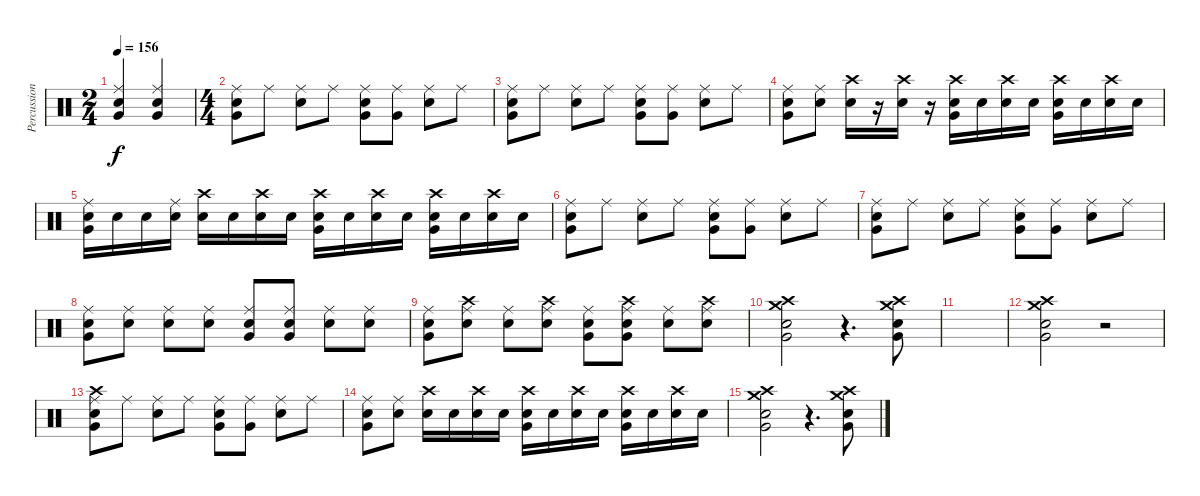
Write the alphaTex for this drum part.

\track ("Percussions" "Percussion") {instrument percussion}
\staff {score}
\articulation defaults
\ts (2 4)
\tempo 156
\clef neutral
\ks c
("Very Low Tom (hit)" "Ride (middle)" "Electric Snare (hit)").4{dy f} ("Very Low Tom (hit)" "Ride (middle)" "Electric Snare (hit)").4 |
\ts (4 4)
("Very Low Tom (hit)" "Electric Snare (hit)" "Ride (middle)").8 "Ride (middle)".8 ("Electric Snare (hit)" "Ride (middle)").8 "Ride (middle)".8 ("Very Low Tom (hit)" "Electric Snare (hit)" "Ride (middle)").8 ("Very Low Tom (hit)" "Ride (middle)").8 ("Electric Snare (hit)" "Ride (middle)").8 "Ride (middle)".8 |
("Very Low Tom (hit)" "Electric Snare (hit)" "Ride (middle)").8 "Ride (middle)".8 ("Electric Snare (hit)" "Ride (middle)").8 "Ride (middle)".8 ("Very Low Tom (hit)" "Electric Snare (hit)" "Ride (middle)").8 ("Very Low Tom (hit)" "Ride (middle)").8 ("Electric Snare (hit)" "Ride (middle)").8 "Ride (middle)".8 |
("Very Low Tom (hit)" "Electric Snare (hit)" "Ride (middle)").8 ("Electric Snare (hit)" "Ride (middle)").8 ("Electric Snare (hit)" "Crash high (hit)").16 r.16 ("Electric Snare (hit)" "Crash high (hit)").16 r.16 ("Very Low Tom (hit)" "Electric Snare (hit)" "Crash high (hit)").16 "Electric Snare (hit)".16 ("Electric Snare (hit)" "Crash high (hit)").16 "Electric Snare (hit)".16 ("Very Low Tom (hit)" "Electric Snare (hit)" "Crash high (hit)").16 "Electric Snare (hit)".16 ("Electric Snare (hit)" "Crash high (hit)").16 "Electric Snare (hit)".16 |
("Very Low Tom (hit)" "Electric Snare (hit)" "Ride (middle)").16 "Electric Snare (hit)".16 "Electric Snare (hit)".16 ("Electric Snare (hit)" "Ride (middle)").16 ("Electric Snare (hit)" "Crash high (hit)").16 "Electric Snare (hit)".16 ("Electric Snare (hit)" "Crash high (hit)").16 "Electric Snare (hit)".16 ("Very Low Tom (hit)" "Electric Snare (hit)" "Crash high (hit)").16 "Electric Snare (hit)".16 ("Electric Snare (hit)" "Crash high (hit)").16 "Electric Snare (hit)".16 ("Very Low Tom (hit)" "Electric Snare (hit)" "Crash high (hit)").16 "Electric Snare (hit)".16 ("Electric Snare (hit)" "Crash high (hit)").16 "Electric Snare (hit)".16 |
("Very Low Tom (hit)" "Electric Snare (hit)" "Ride (middle)").8 "Ride (middle)".8 ("Electric Snare (hit)" "Ride (middle)").8 "Ride (middle)".8 ("Very Low Tom (hit)" "Electric Snare (hit)" "Ride (middle)").8 ("Very Low Tom (hit)" "Ride (middle)").8 ("Electric Snare (hit)" "Ride (middle)").8 "Ride (middle)".8 |
("Very Low Tom (hit)" "Electric Snare (hit)" "Ride (middle)").8 "Ride (middle)".8 ("Electric Snare (hit)" "Ride (middle)").8 "Ride (middle)".8 ("Very Low Tom (hit)" "Electric Snare (hit)" "Ride (middle)").8 ("Very Low Tom (hit)" "Ride (middle)").8 ("Electric Snare (hit)" "Ride (middle)").8 "Ride (middle)".8 |
("Very Low Tom (hit)" "Electric Snare (hit)" "Ride (middle)").8 ("Electric Snare (hit)" "Ride (middle)").8 ("Electric Snare (hit)" "Ride (middle)").8 ("Electric Snare (hit)" "Ride (middle)").8 ("Very Low Tom (hit)" "Electric Snare (hit)" "Ride (middle)").8 ("Very Low Tom (hit)" "Electric Snare (hit)" "Ride (middle)").8 ("Electric Snare (hit)" "Ride (middle)").8 ("Electric Snare (hit)" "Ride (middle)").8 |
("Very Low Tom (hit)" "Electric Snare (hit)" "Ride (middle)").8 ("Crash high (hit)" "Electric Snare (hit)" "Ride (middle)").8 ("Electric Snare (hit)" "Ride (middle)").8 ("Crash high (hit)" "Electric Snare (hit)" "Ride (middle)").8 ("Very Low Tom (hit)" "Electric Snare (hit)" "Ride (middle)").8 ("Very Low Tom (hit)" "Crash high (hit)" "Electric Snare (hit)" "Ride (middle)").8 ("Electric Snare (hit)" "Ride (middle)").8 ("Crash high (hit)" "Electric Snare (hit)" "Ride (middle)").8 |
("Very Low Tom (hit)" "Crash high (hit)" "Crash medium (hit)" "Electric Snare (hit)").2 r.4{d} ("Very Low Tom (hit)" "Crash high (hit)" "Crash medium (hit)" "Electric Snare (hit)").8 |
|
("Very Low Tom (hit)" "Crash high (hit)" "Crash medium (hit)" "Electric Snare (hit)").2 r.2 |
("Very Low Tom (hit)" "Crash high (hit)" "Electric Snare (hit)" "Ride (middle)").8 "Ride (middle)".8 ("Electric Snare (hit)" "Ride (middle)").8 "Ride (middle)".8 ("Very Low Tom (hit)" "Electric Snare (hit)" "Ride (middle)").8 ("Very Low Tom (hit)" "Ride (middle)").8 ("Electric Snare (hit)" "Ride (middle)").8 "Ride (middle)".8 |
("Very Low Tom (hit)" "Electric Snare (hit)" "Ride (middle)").8 ("Electric Snare (hit)" "Ride (middle)").8 ("Electric Snare (hit)" "Crash high (hit)").16 "Electric Snare (hit)".16 ("Electric Snare (hit)" "Crash high (hit)").16 "Electric Snare (hit)".16 ("Very Low Tom (hit)" "Electric Snare (hit)" "Crash high (hit)").16 "Electric Snare (hit)".16 ("Electric Snare (hit)" "Crash high (hit)").16 "Electric Snare (hit)".16 ("Very Low Tom (hit)" "Electric Snare (hit)" "Crash high (hit)").16 "Electric Snare (hit)".16 ("Electric Snare (hit)" "Crash high (hit)").16 "Electric Snare (hit)".16 |
("Very Low Tom (hit)" "Crash high (hit)" "Crash medium (hit)" "Electric Snare (hit)").2 r.4{d} ("Very Low Tom (hit)" "Crash high (hit)" "Crash medium (hit)" "Electric Snare (hit)").8
